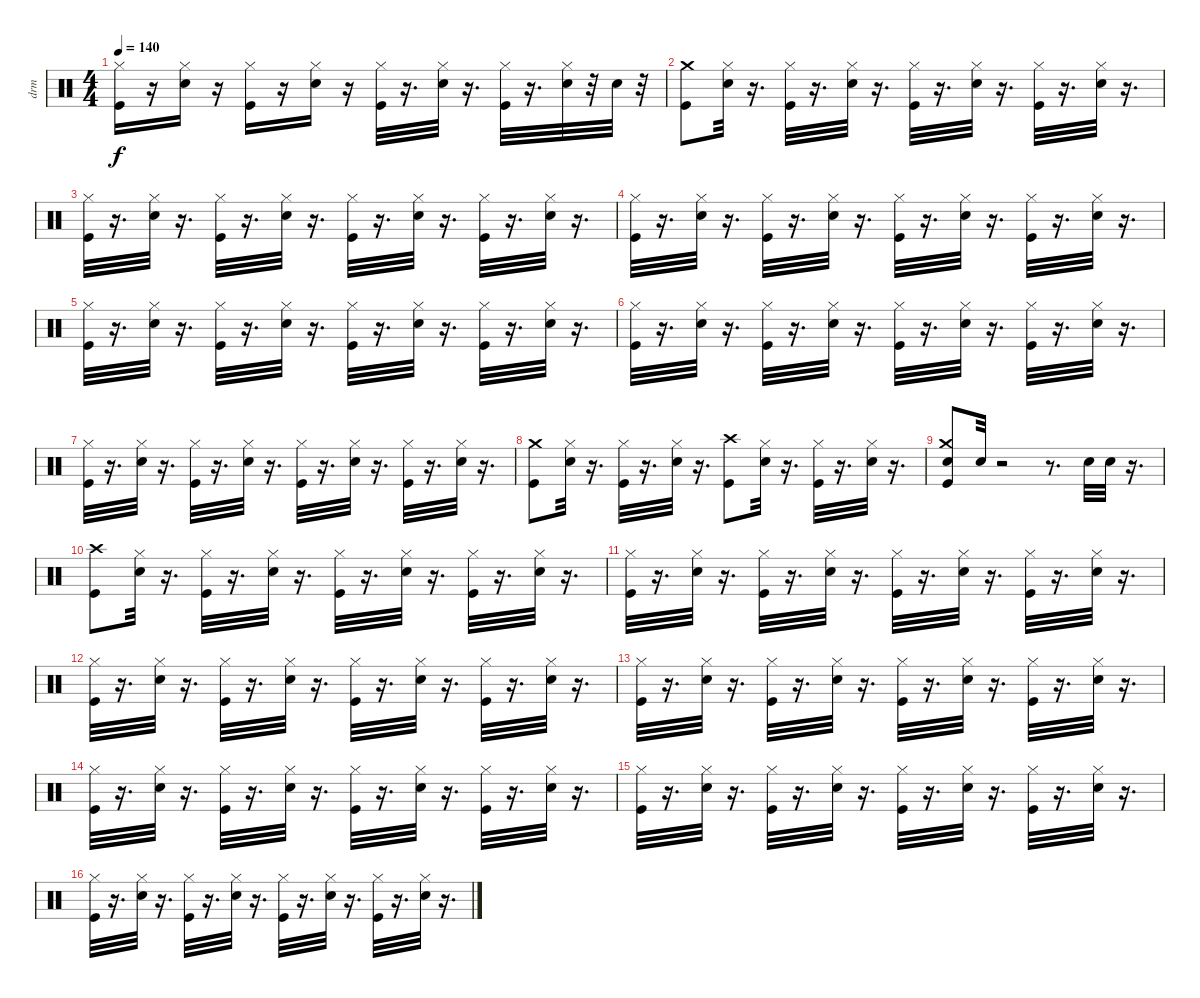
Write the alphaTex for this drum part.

\track ("drm" "drm") {instrument percussion}
\staff {score}
\articulation defaults
\ts (4 4)
\tempo 140
\clef neutral
\ks c
("Kick (hit)" "Hi-Hat (closed)").16{dy f} r.16 ("Snare (hit) 2" "Hi-Hat (closed)").16 r.16 ("Kick (hit)" "Hi-Hat (closed)").16 r.16 ("Snare (hit) 2" "Hi-Hat (closed)").16 r.16 ("Hi-Hat (closed)" "Kick (hit)").32 r.16{d} ("Hi-Hat (closed)" "Snare (hit) 2").32 r.16{d} ("Hi-Hat (closed)" "Kick (hit)").32 r.16{d} ("Hi-Hat (closed)" "Snare (hit) 2").32 r.32 "Snare (hit) 2".32 r.32 |
("Crash medium (hit)" "Kick (hit)").8 ("Snare (hit) 2" "Hi-Hat (closed)").32 r.16{d} ("Kick (hit)" "Hi-Hat (closed)").32 r.16{d} ("Snare (hit) 2" "Hi-Hat (closed)").32 r.16{d} ("Kick (hit)" "Hi-Hat (closed)").32 r.16{d} ("Snare (hit) 2" "Hi-Hat (closed)").32 r.16{d} ("Kick (hit)" "Hi-Hat (closed)").32 r.16{d} ("Snare (hit) 2" "Hi-Hat (closed)").32 r.16{d} |
("Kick (hit)" "Hi-Hat (closed)").32 r.16{d} ("Snare (hit) 2" "Hi-Hat (closed)").32 r.16{d} ("Kick (hit)" "Hi-Hat (closed)").32 r.16{d} ("Snare (hit) 2" "Hi-Hat (closed)").32 r.16{d} ("Kick (hit)" "Hi-Hat (closed)").32 r.16{d} ("Snare (hit) 2" "Hi-Hat (closed)").32 r.16{d} ("Kick (hit)" "Hi-Hat (closed)").32 r.16{d} ("Snare (hit) 2" "Hi-Hat (closed)").32 r.16{d} |
("Kick (hit)" "Hi-Hat (closed)").32 r.16{d} ("Snare (hit) 2" "Hi-Hat (closed)").32 r.16{d} ("Kick (hit)" "Hi-Hat (closed)").32 r.16{d} ("Snare (hit) 2" "Hi-Hat (closed)").32 r.16{d} ("Kick (hit)" "Hi-Hat (closed)").32 r.16{d} ("Snare (hit) 2" "Hi-Hat (closed)").32 r.16{d} ("Kick (hit)" "Hi-Hat (closed)").32 r.16{d} ("Snare (hit) 2" "Hi-Hat (closed)").32 r.16{d} |
("Kick (hit)" "Hi-Hat (closed)").32 r.16{d} ("Snare (hit) 2" "Hi-Hat (closed)").32 r.16{d} ("Kick (hit)" "Hi-Hat (closed)").32 r.16{d} ("Snare (hit) 2" "Hi-Hat (closed)").32 r.16{d} ("Kick (hit)" "Hi-Hat (closed)").32 r.16{d} ("Snare (hit) 2" "Hi-Hat (closed)").32 r.16{d} ("Kick (hit)" "Hi-Hat (closed)").32 r.16{d} ("Snare (hit) 2" "Hi-Hat (closed)").32 r.16{d} |
("Kick (hit)" "Hi-Hat (closed)").32 r.16{d} ("Snare (hit) 2" "Hi-Hat (closed)").32 r.16{d} ("Kick (hit)" "Hi-Hat (closed)").32 r.16{d} ("Snare (hit) 2" "Hi-Hat (closed)").32 r.16{d} ("Kick (hit)" "Hi-Hat (closed)").32 r.16{d} ("Snare (hit) 2" "Hi-Hat (closed)").32 r.16{d} ("Kick (hit)" "Hi-Hat (closed)").32 r.16{d} ("Snare (hit) 2" "Hi-Hat (closed)").32 r.16{d} |
("Kick (hit)" "Hi-Hat (closed)").32 r.16{d} ("Snare (hit) 2" "Hi-Hat (closed)").32 r.16{d} ("Kick (hit)" "Hi-Hat (closed)").32 r.16{d} ("Snare (hit) 2" "Hi-Hat (closed)").32 r.16{d} ("Kick (hit)" "Hi-Hat (closed)").32 r.16{d} ("Snare (hit) 2" "Hi-Hat (closed)").32 r.16{d} ("Kick (hit)" "Hi-Hat (closed)").32 r.16{d} ("Snare (hit) 2" "Hi-Hat (closed)").32 r.16{d} |
("Crash medium (hit)" "Kick (hit)").8 ("Snare (hit) 2" "Hi-Hat (closed)").32 r.16{d} ("Kick (hit)" "Hi-Hat (closed)").32 r.16{d} ("Snare (hit) 2" "Hi-Hat (closed)").32 r.16{d} ("Crash high (hit)" "Kick (hit)").8 ("Snare (hit) 2" "Hi-Hat (closed)").32 r.16{d} ("Kick (hit)" "Hi-Hat (closed)").32 r.16{d} ("Snare (hit) 2" "Hi-Hat (closed)").32 r.16{d} |
("Electric Snare (hit)" "Crash medium (hit)" "Kick (hit)").8 "Electric Snare (hit)".32 r.2 r.8{d} "Electric Snare (hit)".32 "Electric Snare (hit)".32 r.16{d} |
("Crash high (hit)" "Kick (hit)").8 ("Snare (hit) 2" "Hi-Hat (closed)").32 r.16{d} ("Kick (hit)" "Hi-Hat (closed)").32 r.16{d} ("Snare (hit) 2" "Hi-Hat (closed)").32 r.16{d} ("Kick (hit)" "Hi-Hat (closed)").32 r.16{d} ("Snare (hit) 2" "Hi-Hat (closed)").32 r.16{d} ("Kick (hit)" "Hi-Hat (closed)").32 r.16{d} ("Snare (hit) 2" "Hi-Hat (closed)").32 r.16{d} |
("Kick (hit)" "Hi-Hat (closed)").32 r.16{d} ("Snare (hit) 2" "Hi-Hat (closed)").32 r.16{d} ("Kick (hit)" "Hi-Hat (closed)").32 r.16{d} ("Snare (hit) 2" "Hi-Hat (closed)").32 r.16{d} ("Kick (hit)" "Hi-Hat (closed)").32 r.16{d} ("Snare (hit) 2" "Hi-Hat (closed)").32 r.16{d} ("Kick (hit)" "Hi-Hat (closed)").32 r.16{d} ("Snare (hit) 2" "Hi-Hat (closed)").32 r.16{d} |
("Kick (hit)" "Hi-Hat (closed)").32 r.16{d} ("Snare (hit) 2" "Hi-Hat (closed)").32 r.16{d} ("Kick (hit)" "Hi-Hat (closed)").32 r.16{d} ("Snare (hit) 2" "Hi-Hat (closed)").32 r.16{d} ("Kick (hit)" "Hi-Hat (closed)").32 r.16{d} ("Snare (hit) 2" "Hi-Hat (closed)").32 r.16{d} ("Kick (hit)" "Hi-Hat (closed)").32 r.16{d} ("Snare (hit) 2" "Hi-Hat (closed)").32 r.16{d} |
("Kick (hit)" "Hi-Hat (closed)").32 r.16{d} ("Snare (hit) 2" "Hi-Hat (closed)").32 r.16{d} ("Kick (hit)" "Hi-Hat (closed)").32 r.16{d} ("Snare (hit) 2" "Hi-Hat (closed)").32 r.16{d} ("Kick (hit)" "Hi-Hat (closed)").32 r.16{d} ("Snare (hit) 2" "Hi-Hat (closed)").32 r.16{d} ("Kick (hit)" "Hi-Hat (closed)").32 r.16{d} ("Snare (hit) 2" "Hi-Hat (closed)").32 r.16{d} |
("Kick (hit)" "Hi-Hat (closed)").32 r.16{d} ("Snare (hit) 2" "Hi-Hat (closed)").32 r.16{d} ("Kick (hit)" "Hi-Hat (closed)").32 r.16{d} ("Snare (hit) 2" "Hi-Hat (closed)").32 r.16{d} ("Kick (hit)" "Hi-Hat (closed)").32 r.16{d} ("Snare (hit) 2" "Hi-Hat (closed)").32 r.16{d} ("Kick (hit)" "Hi-Hat (closed)").32 r.16{d} ("Snare (hit) 2" "Hi-Hat (closed)").32 r.16{d} |
("Kick (hit)" "Hi-Hat (closed)").32 r.16{d} ("Snare (hit) 2" "Hi-Hat (closed)").32 r.16{d} ("Kick (hit)" "Hi-Hat (closed)").32 r.16{d} ("Snare (hit) 2" "Hi-Hat (closed)").32 r.16{d} ("Kick (hit)" "Hi-Hat (closed)").32 r.16{d} ("Snare (hit) 2" "Hi-Hat (closed)").32 r.16{d} ("Kick (hit)" "Hi-Hat (closed)").32 r.16{d} ("Snare (hit) 2" "Hi-Hat (closed)").32 r.16{d} |
("Kick (hit)" "Hi-Hat (closed)").32 r.16{d} ("Snare (hit) 2" "Hi-Hat (closed)").32 r.16{d} ("Kick (hit)" "Hi-Hat (closed)").32 r.16{d} ("Snare (hit) 2" "Hi-Hat (closed)").32 r.16{d} ("Kick (hit)" "Hi-Hat (closed)").32 r.16{d} ("Snare (hit) 2" "Hi-Hat (closed)").32 r.16{d} ("Kick (hit)" "Hi-Hat (closed)").32 r.16{d} ("Snare (hit) 2" "Hi-Hat (closed)").32 r.16{d}
